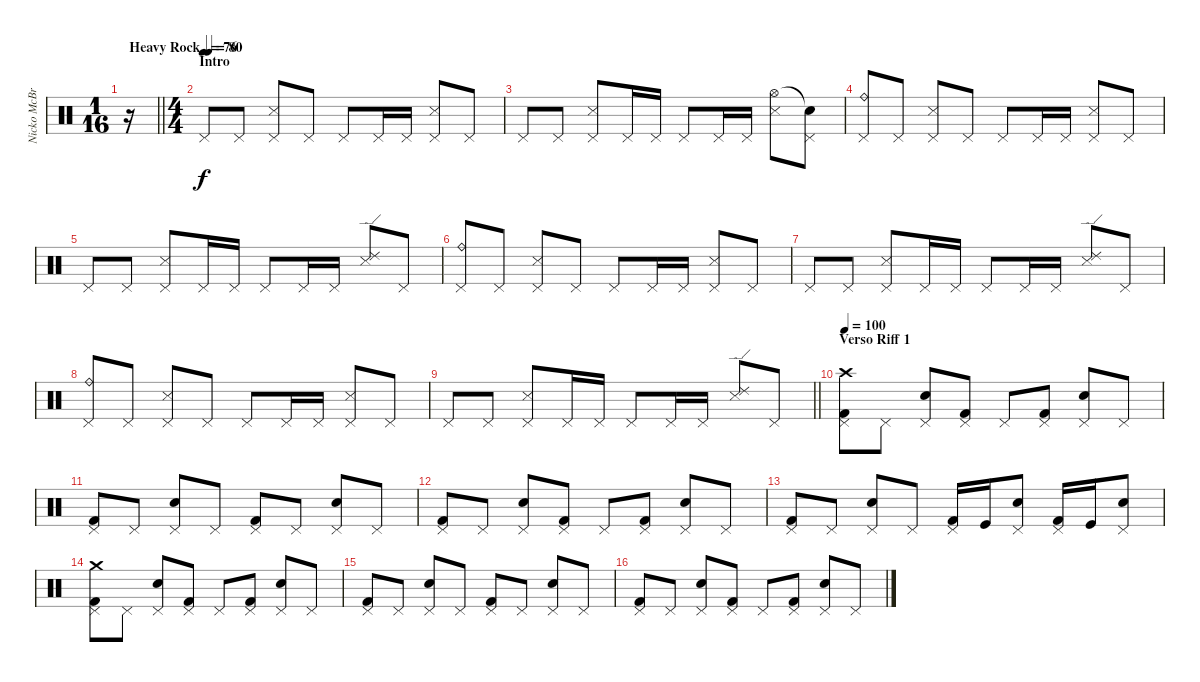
\track ("Nicko McBrain" "Nicko McBr") {instrument percussion}
\staff {score}
\articulation defaults
\ts (1 16)
\tempo (80 "Heavy Rock")
\clef neutral
\barLineRight lightlight
\ks c
r.16{dy f} |
\ts (4 4)
\section ("" "Intro")
\tempo (76)
"Pedal Hi-Hat (hit)".8 "Pedal Hi-Hat (hit)".8 ("Snare (side stick) 3" "Pedal Hi-Hat (hit)").8 "Pedal Hi-Hat (hit)".8 "Pedal Hi-Hat (hit)".8 "Pedal Hi-Hat (hit)".16 "Pedal Hi-Hat (hit)".16 ("Snare (side stick) 3" "Pedal Hi-Hat (hit)").8 "Pedal Hi-Hat (hit)".8 |
"Pedal Hi-Hat (hit)".8 "Pedal Hi-Hat (hit)".8 ("Snare (side stick) 3" "Pedal Hi-Hat (hit)").8 "Pedal Hi-Hat (hit)".16 "Pedal Hi-Hat (hit)".16 "Pedal Hi-Hat (hit)".8 "Pedal Hi-Hat (hit)".16 "Pedal Hi-Hat (hit)".16 ("Snare (side stick) 3" "Hi-Hat (open)").8 ("Pedal Hi-Hat (hit)" "Snare (hit)"{t}).8 |
("Ride (bell)" "Pedal Hi-Hat (hit)").8 "Pedal Hi-Hat (hit)".8 ("Snare (side stick) 3" "Pedal Hi-Hat (hit)").8 "Pedal Hi-Hat (hit)".8 "Pedal Hi-Hat (hit)".8 "Pedal Hi-Hat (hit)".16 "Pedal Hi-Hat (hit)".16 ("Snare (side stick) 3" "Pedal Hi-Hat (hit)").8 "Pedal Hi-Hat (hit)".8 |
"Pedal Hi-Hat (hit)".8 "Pedal Hi-Hat (hit)".8 ("Snare (side stick) 3" "Pedal Hi-Hat (hit)").8 "Pedal Hi-Hat (hit)".16 "Pedal Hi-Hat (hit)".16 "Pedal Hi-Hat (hit)".8 "Pedal Hi-Hat (hit)".16 "Pedal Hi-Hat (hit)".16 ("Snare (side stick) 3" "Ride (edge) 2").8 "Pedal Hi-Hat (hit)".8 |
("Ride (bell)" "Pedal Hi-Hat (hit)").8 "Pedal Hi-Hat (hit)".8 ("Snare (side stick) 3" "Pedal Hi-Hat (hit)").8 "Pedal Hi-Hat (hit)".8 "Pedal Hi-Hat (hit)".8 "Pedal Hi-Hat (hit)".16 "Pedal Hi-Hat (hit)".16 ("Snare (side stick) 3" "Pedal Hi-Hat (hit)").8 "Pedal Hi-Hat (hit)".8 |
"Pedal Hi-Hat (hit)".8 "Pedal Hi-Hat (hit)".8 ("Snare (side stick) 3" "Pedal Hi-Hat (hit)").8 "Pedal Hi-Hat (hit)".16 "Pedal Hi-Hat (hit)".16 "Pedal Hi-Hat (hit)".8 "Pedal Hi-Hat (hit)".16 "Pedal Hi-Hat (hit)".16 ("Snare (side stick) 3" "Ride (edge) 2").8 "Pedal Hi-Hat (hit)".8 |
("Ride (bell)" "Pedal Hi-Hat (hit)").8 "Pedal Hi-Hat (hit)".8 ("Snare (side stick) 3" "Pedal Hi-Hat (hit)").8 "Pedal Hi-Hat (hit)".8 "Pedal Hi-Hat (hit)".8 "Pedal Hi-Hat (hit)".16 "Pedal Hi-Hat (hit)".16 ("Snare (side stick) 3" "Pedal Hi-Hat (hit)").8 "Pedal Hi-Hat (hit)".8 |
\barLineRight lightlight "Pedal Hi-Hat (hit)".8 "Pedal Hi-Hat (hit)".8
("Snare (side stick) 3" "Pedal Hi-Hat (hit)").8 "Pedal Hi-Hat (hit)".16 "Pedal Hi-Hat (hit)".16 "Pedal Hi-Hat (hit)".8 "Pedal Hi-Hat (hit)".16 "Pedal Hi-Hat (hit)".16 ("Snare (side stick) 3" "Ride (edge) 2").8 "Pedal Hi-Hat (hit)".8 |
\section ("" "Verso Riff 1")
\tempo 100
("Kick (hit) 2" "Pedal Hi-Hat (hit)" "Crash high (hit)").8 "Pedal Hi-Hat (hit)".8 ("Snare (hit) 2" "Pedal Hi-Hat (hit)").8 ("Kick (hit) 2" "Pedal Hi-Hat (hit)").8 "Pedal Hi-Hat (hit)".8 ("Kick (hit) 2" "Pedal Hi-Hat (hit)").8 ("Snare (hit) 2" "Pedal Hi-Hat (hit)").8 "Pedal Hi-Hat (hit)".8 |
("Kick (hit) 2" "Pedal Hi-Hat (hit)").8 "Pedal Hi-Hat (hit)".8 ("Snare (hit) 2" "Pedal Hi-Hat (hit)").8 "Pedal Hi-Hat (hit)".8 ("Kick (hit) 2" "Pedal Hi-Hat (hit)").8 "Pedal Hi-Hat (hit)".8 ("Snare (hit) 2" "Pedal Hi-Hat (hit)").8 "Pedal Hi-Hat (hit)".8 |
("Kick (hit) 2" "Pedal Hi-Hat (hit)").8 "Pedal Hi-Hat (hit)".8 ("Snare (hit) 2" "Pedal Hi-Hat (hit)").8 ("Kick (hit) 2" "Pedal Hi-Hat (hit)").8 "Pedal Hi-Hat (hit)".8 ("Kick (hit) 2" "Pedal Hi-Hat (hit)").8 ("Snare (hit) 2" "Pedal Hi-Hat (hit)").8 "Pedal Hi-Hat (hit)".8 |
("Kick (hit) 2" "Pedal Hi-Hat (hit)").8 "Pedal Hi-Hat (hit)".8 ("Snare (hit) 2" "Pedal Hi-Hat (hit)").8 "Pedal Hi-Hat (hit)".8 ("Kick (hit) 2" "Pedal Hi-Hat (hit)").16 "Kick (hit)".16 ("Snare (hit) 2" "Pedal Hi-Hat (hit)").8 ("Kick (hit) 2" "Pedal Hi-Hat (hit)").16 "Kick (hit)".16 ("Snare (hit) 2" "Pedal Hi-Hat (hit)").8 |
("Kick (hit) 2" "Pedal Hi-Hat (hit)" "Crash medium (hit)").8 "Pedal Hi-Hat (hit)".8 ("Snare (hit) 2" "Pedal Hi-Hat (hit)").8 ("Kick (hit) 2" "Pedal Hi-Hat (hit)").8 "Pedal Hi-Hat (hit)".8 ("Kick (hit) 2" "Pedal Hi-Hat (hit)").8 ("Snare (hit) 2" "Pedal Hi-Hat (hit)").8 "Pedal Hi-Hat (hit)".8 |
("Kick (hit) 2" "Pedal Hi-Hat (hit)").8 "Pedal Hi-Hat (hit)".8 ("Snare (hit) 2" "Pedal Hi-Hat (hit)").8 "Pedal Hi-Hat (hit)".8 ("Kick (hit) 2" "Pedal Hi-Hat (hit)").8 "Pedal Hi-Hat (hit)".8 ("Snare (hit) 2" "Pedal Hi-Hat (hit)").8 "Pedal Hi-Hat (hit)".8 |
("Kick (hit) 2" "Pedal Hi-Hat (hit)").8 "Pedal Hi-Hat (hit)".8 ("Snare (hit) 2" "Pedal Hi-Hat (hit)").8 ("Kick (hit) 2" "Pedal Hi-Hat (hit)").8 "Pedal Hi-Hat (hit)".8 ("Kick (hit) 2" "Pedal Hi-Hat (hit)").8 ("Snare (hit) 2" "Pedal Hi-Hat (hit)").8 "Pedal Hi-Hat (hit)".8
